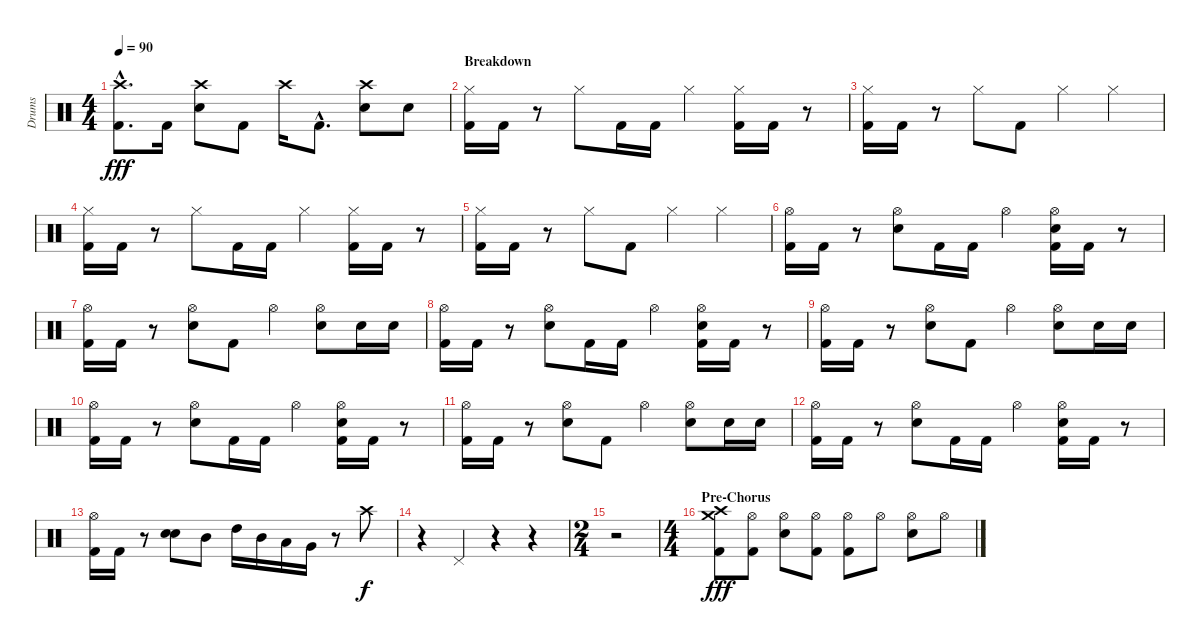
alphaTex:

\track ("Drums" "Drums") {instrument percussion}
\staff {score}
\articulation defaults
\ts (4 4)
\tempo 90
\clef neutral
\ks c
("Crash high (hit)"{hac} "Kick (hit) 2"{hac}).8{d dy fff} "Kick (hit) 2".16 ("Crash high (hit)" "Electric Snare (hit)").8 "Kick (hit) 2".8 "Crash high (hit)".16 "Kick (hit) 2"{hac}.8{d} ("Crash high (hit)" "Electric Snare (hit)").8 "Electric Snare (hit)".8 |
\section ("" "Breakdown")
("Hi-Hat (closed)" "Kick (hit) 2").16 "Kick (hit) 2".16 r.8 "Hi-Hat (closed)".8 "Kick (hit) 2".16 "Kick (hit) 2".16 "Hi-Hat (closed)".4 ("Hi-Hat (closed)" "Kick (hit) 2").16 "Kick (hit) 2".16 r.8 |
("Hi-Hat (closed)" "Kick (hit) 2").16 "Kick (hit) 2".16 r.8 "Hi-Hat (closed)".8 "Kick (hit) 2".8 "Hi-Hat (closed)".4 "Hi-Hat (closed)".4 |
("Hi-Hat (closed)" "Kick (hit) 2").16 "Kick (hit) 2".16 r.8 "Hi-Hat (closed)".8 "Kick (hit) 2".16 "Kick (hit) 2".16 "Hi-Hat (closed)".4 ("Hi-Hat (closed)" "Kick (hit) 2").16 "Kick (hit) 2".16 r.8 |
("Hi-Hat (closed)" "Kick (hit) 2").16 "Kick (hit) 2".16 r.8 "Hi-Hat (closed)".8 "Kick (hit) 2".8 "Hi-Hat (closed)".4 "Hi-Hat (closed)".4 |
("Hi-Hat (open)" "Kick (hit) 2").16 "Kick (hit) 2".16 r.8 ("Hi-Hat (open)" "Electric Snare (hit)").8 "Kick (hit) 2".16 "Kick (hit) 2".16 "Hi-Hat (open)".4 ("Hi-Hat (open)" "Electric Snare (hit)" "Kick (hit) 2").16 "Kick (hit) 2".16 r.8 |
("Hi-Hat (open)" "Kick (hit) 2").16 "Kick (hit) 2".16 r.8 ("Hi-Hat (open)" "Electric Snare (hit)").8 "Kick (hit) 2".8 "Hi-Hat (open)".4 ("Hi-Hat (open)" "Electric Snare (hit)").8 "Electric Snare (hit)".16 "Electric Snare (hit)".16 |
("Hi-Hat (open)" "Kick (hit) 2").16 "Kick (hit) 2".16 r.8 ("Hi-Hat (open)" "Electric Snare (hit)").8 "Kick (hit) 2".16 "Kick (hit) 2".16 "Hi-Hat (open)".4 ("Hi-Hat (open)" "Electric Snare (hit)" "Kick (hit) 2").16 "Kick (hit) 2".16 r.8 |
("Hi-Hat (open)" "Kick (hit) 2").16 "Kick (hit) 2".16 r.8 ("Hi-Hat (open)" "Electric Snare (hit)").8 "Kick (hit) 2".8 "Hi-Hat (open)".4 ("Hi-Hat (open)" "Electric Snare (hit)").8 "Electric Snare (hit)".16 "Electric Snare (hit)".16 |
("Hi-Hat (open)" "Kick (hit) 2").16 "Kick (hit) 2".16 r.8 ("Hi-Hat (open)" "Electric Snare (hit)").8 "Kick (hit) 2".16 "Kick (hit) 2".16 "Hi-Hat (open)".4 ("Hi-Hat (open)" "Electric Snare (hit)" "Kick (hit) 2").16 "Kick (hit) 2".16 r.8 |
("Hi-Hat (open)" "Kick (hit) 2").16 "Kick (hit) 2".16 r.8 ("Hi-Hat (open)" "Electric Snare (hit)").8 "Kick (hit) 2".8 "Hi-Hat (open)".4 ("Hi-Hat (open)" "Electric Snare (hit)").8 "Electric Snare (hit)".16 "Electric Snare (hit)".16 |
("Hi-Hat (open)" "Kick (hit) 2").16 "Kick (hit) 2".16 r.8 ("Hi-Hat (open)" "Electric Snare (hit)").8 "Kick (hit) 2".16 "Kick (hit) 2".16 "Hi-Hat (open)".4 ("Hi-Hat (open)" "Electric Snare (hit)" "Kick (hit) 2").16 "Kick (hit) 2".16 r.8 |
("Hi-Hat (open)" "Kick (hit) 2").16 "Kick (hit) 2".16 r.8 ("Electric Snare (hit)" "Electric Snare (hit)").8 "Mid Tom (hit)".8 "High Tom (hit)".16 "Mid Tom (hit)".16 "Low Tom (hit)".16 "Very Low Tom (hit)".16 r.8 "Crash high (hit)".8{dy f} |
r.4 "Pedal Hi-Hat (hit)".4 r.4 r.4 |
\ts (2 4)
r.2 |
\ts (4 4)
\section ("" "Pre-Chorus")
("Crash high (hit)" "Crash medium (hit)" "Kick (hit) 2").8{dy fff} ("Hi-Hat (open)" "Kick (hit) 2").8 ("Hi-Hat (open)" "Electric Snare (hit)").8 ("Hi-Hat (open)" "Kick (hit) 2").8 ("Hi-Hat (open)" "Kick (hit) 2").8 "Hi-Hat (open)".8 ("Hi-Hat (open)" "Electric Snare (hit)").8 "Hi-Hat (open)".8
